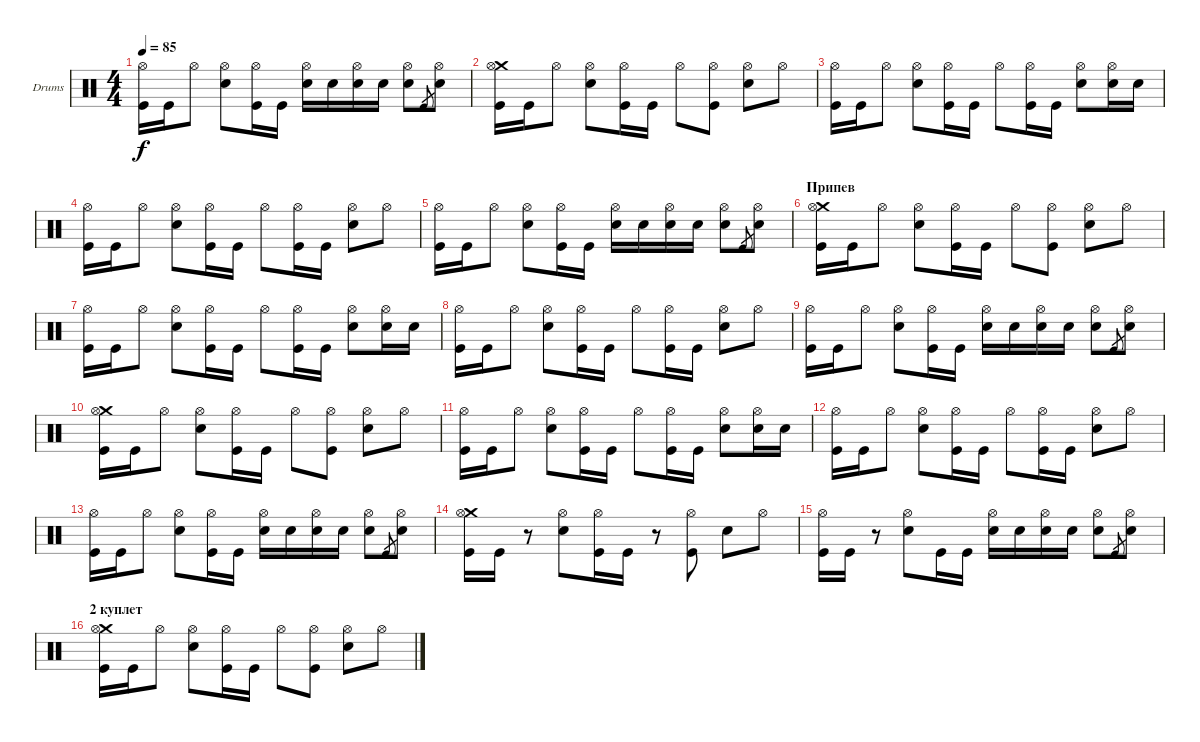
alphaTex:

\defaultSystemsLayout 4
\bracketExtendMode groupsimilarinstruments
\firstSystemTrackNameOrientation horizontal
\otherSystemsTrackNameOrientation horizontal
\track ("Drumkit" "Drums") {instrument percussion}
\staff {score}
\articulation defaults
\ts (4 4)
\tempo 85
\clef neutral
\ks c
("Kick (hit)" "Hi-Hat (open)").16{dy f} "Kick (hit)".16 "Hi-Hat (open)".8 ("Snare (hit) 2" "Hi-Hat (open)").8 ("Kick (hit)" "Hi-Hat (open)").16 "Kick (hit)".16 ("Snare (hit) 2" "Hi-Hat (open)").16 "Snare (hit) 2".16 ("Snare (hit) 2" "Hi-Hat (open)").16 "Snare (hit) 2".16 ("Snare (hit) 2" "Hi-Hat (open)").8 "Kick (hit)".8{gr} ("Snare (hit) 2" "Hi-Hat (open)").8 |
("Kick (hit)" "Crash medium (hit)" "Hi-Hat (open)").16 "Kick (hit)".16 "Hi-Hat (open)".8 ("Snare (hit) 2" "Hi-Hat (open)").8 ("Kick (hit)" "Hi-Hat (open)").16 "Kick (hit)".16 "Hi-Hat (open)".8 ("Kick (hit)" "Hi-Hat (open)").8 ("Snare (hit) 2" "Hi-Hat (open)").8 "Hi-Hat (open)".8 |
("Kick (hit)" "Hi-Hat (open)").16 "Kick (hit)".16 "Hi-Hat (open)".8 ("Snare (hit) 2" "Hi-Hat (open)").8 ("Kick (hit)" "Hi-Hat (open)").16 "Kick (hit)".16 "Hi-Hat (open)".8 ("Kick (hit)" "Hi-Hat (open)").16 "Kick (hit)".16 ("Snare (hit) 2" "Hi-Hat (open)").8 ("Hi-Hat (open)" "Snare (hit) 2").16 "Snare (hit) 2".16 |
("Kick (hit)" "Hi-Hat (open)").16 "Kick (hit)".16 "Hi-Hat (open)".8 ("Snare (hit) 2" "Hi-Hat (open)").8 ("Kick (hit)" "Hi-Hat (open)").16 "Kick (hit)".16 "Hi-Hat (open)".8 ("Kick (hit)" "Hi-Hat (open)").16 "Kick (hit)".16 ("Snare (hit) 2" "Hi-Hat (open)").8 "Hi-Hat (open)".8 |
("Kick (hit)" "Hi-Hat (open)").16 "Kick (hit)".16 "Hi-Hat (open)".8 ("Snare (hit) 2" "Hi-Hat (open)").8 ("Kick (hit)" "Hi-Hat (open)").16 "Kick (hit)".16 ("Snare (hit) 2" "Hi-Hat (open)").16 "Snare (hit) 2".16 ("Snare (hit) 2" "Hi-Hat (open)").16 "Snare (hit) 2".16 ("Snare (hit) 2" "Hi-Hat (open)").8 "Kick (hit)".8{gr} ("Snare (hit) 2" "Hi-Hat (open)").8 |
\section ("" "Припев ")
("Kick (hit)" "Crash medium (hit)" "Hi-Hat (open)").16 "Kick (hit)".16 "Hi-Hat (open)".8 ("Snare (hit) 2" "Hi-Hat (open)").8 ("Kick (hit)" "Hi-Hat (open)").16 "Kick (hit)".16 "Hi-Hat (open)".8 ("Kick (hit)" "Hi-Hat (open)").8 ("Snare (hit) 2" "Hi-Hat (open)").8 "Hi-Hat (open)".8 |
("Kick (hit)" "Hi-Hat (open)").16 "Kick (hit)".16 "Hi-Hat (open)".8 ("Snare (hit) 2" "Hi-Hat (open)").8 ("Kick (hit)" "Hi-Hat (open)").16 "Kick (hit)".16 "Hi-Hat (open)".8 ("Kick (hit)" "Hi-Hat (open)").16 "Kick (hit)".16 ("Snare (hit) 2" "Hi-Hat (open)").8 ("Hi-Hat (open)" "Snare (hit) 2").16 "Snare (hit) 2".16 |
("Kick (hit)" "Hi-Hat (open)").16 "Kick (hit)".16 "Hi-Hat (open)".8 ("Snare (hit) 2" "Hi-Hat (open)").8 ("Kick (hit)" "Hi-Hat (open)").16 "Kick (hit)".16 "Hi-Hat (open)".8 ("Kick (hit)" "Hi-Hat (open)").16 "Kick (hit)".16 ("Snare (hit) 2" "Hi-Hat (open)").8 "Hi-Hat (open)".8 |
("Kick (hit)" "Hi-Hat (open)").16 "Kick (hit)".16 "Hi-Hat (open)".8 ("Snare (hit) 2" "Hi-Hat (open)").8 ("Kick (hit)" "Hi-Hat (open)").16 "Kick (hit)".16 ("Snare (hit) 2" "Hi-Hat (open)").16 "Snare (hit) 2".16 ("Snare (hit) 2" "Hi-Hat (open)").16 "Snare (hit) 2".16 ("Snare (hit) 2" "Hi-Hat (open)").8 "Kick (hit)".8{gr} ("Snare (hit) 2" "Hi-Hat (open)").8 |
("Kick (hit)" "Crash medium (hit)" "Hi-Hat (open)").16 "Kick (hit)".16 "Hi-Hat (open)".8 ("Snare (hit) 2" "Hi-Hat (open)").8 ("Kick (hit)" "Hi-Hat (open)").16 "Kick (hit)".16 "Hi-Hat (open)".8 ("Kick (hit)" "Hi-Hat (open)").8 ("Snare (hit) 2" "Hi-Hat (open)").8 "Hi-Hat (open)".8 |
("Kick (hit)" "Hi-Hat (open)").16 "Kick (hit)".16 "Hi-Hat (open)".8 ("Snare (hit) 2" "Hi-Hat (open)").8 ("Kick (hit)" "Hi-Hat (open)").16 "Kick (hit)".16 "Hi-Hat (open)".8 ("Kick (hit)" "Hi-Hat (open)").16 "Kick (hit)".16 ("Snare (hit) 2" "Hi-Hat (open)").8 ("Hi-Hat (open)" "Snare (hit) 2").16 "Snare (hit) 2".16 |
("Kick (hit)" "Hi-Hat (open)").16 "Kick (hit)".16 "Hi-Hat (open)".8 ("Snare (hit) 2" "Hi-Hat (open)").8 ("Kick (hit)" "Hi-Hat (open)").16 "Kick (hit)".16 "Hi-Hat (open)".8 ("Kick (hit)" "Hi-Hat (open)").16 "Kick (hit)".16 ("Snare (hit) 2" "Hi-Hat (open)").8 "Hi-Hat (open)".8 |
("Kick (hit)" "Hi-Hat (open)").16 "Kick (hit)".16 "Hi-Hat (open)".8 ("Snare (hit) 2" "Hi-Hat (open)").8 ("Kick (hit)" "Hi-Hat (open)").16 "Kick (hit)".16 ("Snare (hit) 2" "Hi-Hat (open)").16 "Snare (hit) 2".16 ("Snare (hit) 2" "Hi-Hat (open)").16 "Snare (hit) 2".16 ("Snare (hit) 2" "Hi-Hat (open)").8 "Kick (hit)".8{gr} ("Snare (hit) 2" "Hi-Hat (open)").8 |
("Kick (hit)" "Crash medium (hit)" "Hi-Hat (open)").16 "Kick (hit)".16 r.8 ("Snare (hit) 2" "Hi-Hat (open)").8 ("Kick (hit)" "Hi-Hat (open)").16 "Kick (hit)".16 r.8 ("Kick (hit)" "Hi-Hat (open)").8 "Snare (hit) 2".8 "Hi-Hat (open)".8 |
("Kick (hit)" "Hi-Hat (open)").16 "Kick (hit)".16 r.8 ("Snare (hit) 2" "Hi-Hat (open)").8 "Kick (hit)".16 "Kick (hit)".16 ("Snare (hit) 2" "Hi-Hat (open)").16 "Snare (hit) 2".16 ("Snare (hit) 2" "Hi-Hat (open)").16 "Snare (hit) 2".16 ("Snare (hit) 2" "Hi-Hat (open)").8 "Kick (hit)".8{gr} ("Snare (hit) 2" "Hi-Hat (open)").8 |
\section ("" "2 куплет")
("Kick (hit)" "Crash medium (hit)" "Hi-Hat (open)").16 "Kick (hit)".16 "Hi-Hat (open)".8 ("Snare (hit) 2" "Hi-Hat (open)").8 ("Kick (hit)" "Hi-Hat (open)").16 "Kick (hit)".16 "Hi-Hat (open)".8 ("Kick (hit)" "Hi-Hat (open)").8 ("Snare (hit) 2" "Hi-Hat (open)").8 "Hi-Hat (open)".8
